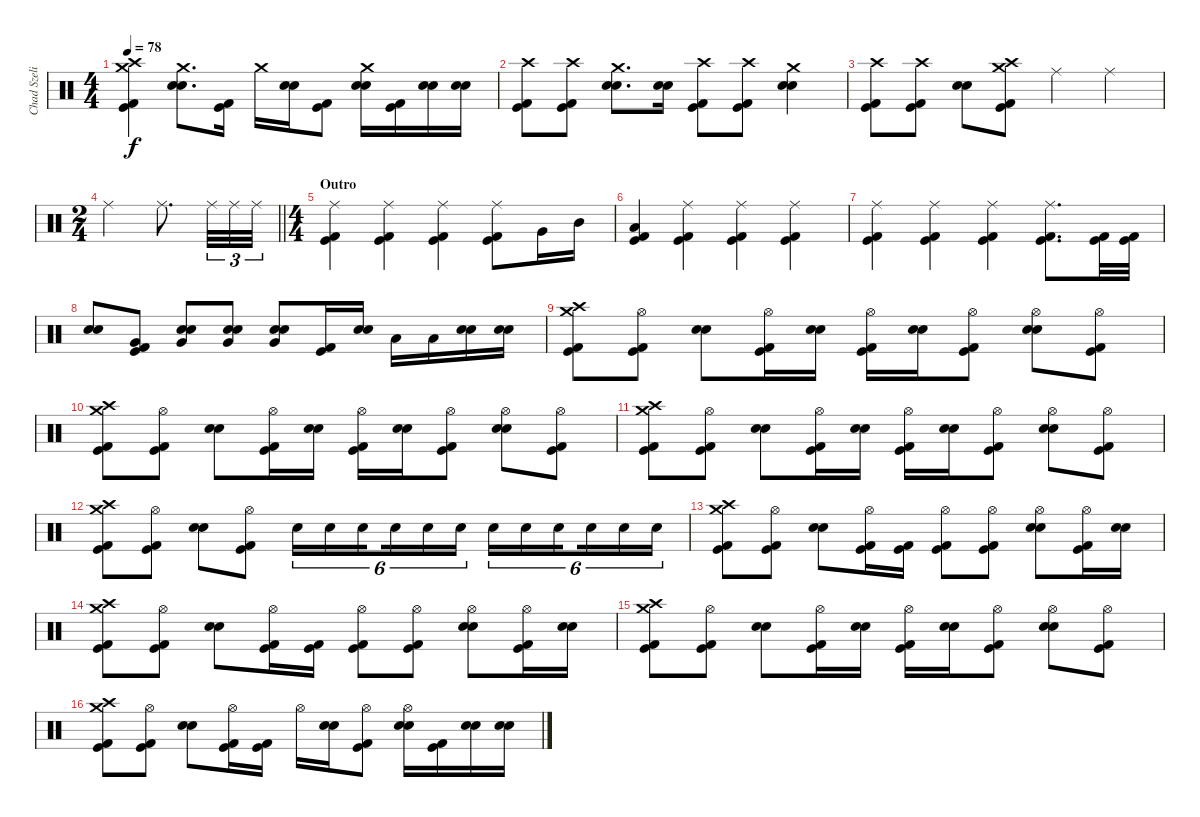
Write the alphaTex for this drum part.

\track ("Chad Szeliga" "Chad Szeli") {instrument percussion}
\staff {score}
\articulation defaults
\ts (4 4)
\tempo 78
\clef neutral
\ks c
("Crash high (hit)" "Kick (hit) 2" "Kick (hit)" "Crash medium (hit)").4{dy f} ("Crash medium (hit)" "Snare (hit) 2" "Snare (hit) 2").8{d} ("Kick (hit) 2" "Kick (hit)").16 "Crash medium (hit)".16 ("Snare (hit) 2" "Snare (hit) 2").16 ("Kick (hit) 2" "Kick (hit)").8 ("Crash medium (hit)" "Snare (hit) 2" "Snare (hit) 2").16 ("Kick (hit) 2" "Kick (hit)").16 ("Snare (hit) 2" "Snare (hit) 2").16 ("Snare (hit) 2" "Snare (hit) 2").16 |
("Crash high (hit)" "Kick (hit) 2" "Kick (hit)").8 ("Crash high (hit)" "Kick (hit) 2" "Kick (hit)").8 ("Crash medium (hit)" "Snare (hit) 2" "Snare (hit) 2").8{d} ("Snare (hit) 2" "Snare (hit) 2").16 ("Crash high (hit)" "Kick (hit) 2" "Kick (hit)").8 ("Crash high (hit)" "Kick (hit) 2" "Kick (hit)").8 ("Crash medium (hit)" "Snare (hit) 2" "Snare (hit) 2").4 |
("Crash high (hit)" "Kick (hit) 2" "Kick (hit)").8 ("Crash high (hit)" "Kick (hit) 2" "Kick (hit)").8 ("Snare (hit) 2" "Snare (hit) 2").8 ("Crash high (hit)" "Kick (hit) 2" "Kick (hit)" "Crash medium (hit)").8 "Ride (middle)".4 "Ride (middle)".4 |
\ts (2 4)
\barLineRight lightlight "Ride (middle)".4 "Ride (middle)".8{d} "Ride (middle)".32{tu (3 2)} "Ride (middle)".32{tu (3 2)} "Ride (middle)".32{tu (3 2)}
|
\ts (4 4)
\section ("" "Outro")
("Ride (middle)" "Kick (hit) 2" "Kick (hit)").4 ("Ride (middle)" "Kick (hit) 2" "Kick (hit)").4 ("Ride (middle)" "Kick (hit) 2" "Kick (hit)").4 ("Ride (middle)" "Kick (hit) 2" "Kick (hit)").8 "Very Low Tom (hit)".16 "Mid Tom (hit)".16 |
("Kick (hit) 2" "Kick (hit)" "Low Tom (hit)").4 ("Ride (middle)" "Kick (hit) 2" "Kick (hit)").4 ("Ride (middle)" "Kick (hit) 2" "Kick (hit)").4 ("Ride (middle)" "Kick (hit) 2" "Kick (hit)").4 |
("Ride (middle)" "Kick (hit) 2" "Kick (hit)").4 ("Ride (middle)" "Kick (hit) 2" "Kick (hit)").4 ("Ride (middle)" "Kick (hit) 2" "Kick (hit)").4 ("Ride (middle)" "Kick (hit) 2" "Kick (hit)").8{d} ("Kick (hit) 2" "Kick (hit)").32 ("Kick (hit) 2" "Kick (hit)").32 |
("Snare (hit) 2" "Snare (hit) 2").8 ("Kick (hit) 2" "Kick (hit)" "Very Low Tom (hit)").8 ("Snare (hit) 2" "Snare (hit) 2" "Very Low Tom (hit)").8 ("Snare (hit) 2" "Snare (hit) 2" "Very Low Tom (hit)").8 ("Snare (hit) 2" "Snare (hit) 2" "Very Low Tom (hit)").8 ("Kick (hit) 2" "Kick (hit)").16 ("Snare (hit) 2" "Snare (hit) 2").16 "Low Tom (hit)".16 "Low Tom (hit)".16 ("Snare (hit) 2" "Snare (hit) 2").16 ("Snare (hit) 2" "Snare (hit) 2").16 |
("Crash high (hit)" "Kick (hit) 2" "Kick (hit)" "Crash medium (hit)").8 ("Kick (hit) 2" "Kick (hit)" "Hi-Hat (open)").8 ("Snare (hit) 2" "Snare (hit) 2").8 ("Kick (hit) 2" "Kick (hit)" "Hi-Hat (open)").16 ("Snare (hit) 2" "Snare (hit) 2").16 ("Kick (hit) 2" "Kick (hit)" "Hi-Hat (open)").16 ("Snare (hit) 2" "Snare (hit) 2").16 ("Kick (hit) 2" "Kick (hit)" "Hi-Hat (open)").8 ("Snare (hit) 2" "Snare (hit) 2" "Hi-Hat (open)").8 ("Kick (hit) 2" "Kick (hit)" "Hi-Hat (open)").8 |
("Crash high (hit)" "Kick (hit) 2" "Kick (hit)" "Crash medium (hit)").8 ("Kick (hit) 2" "Kick (hit)" "Hi-Hat (open)").8 ("Snare (hit) 2" "Snare (hit) 2").8 ("Kick (hit) 2" "Kick (hit)" "Hi-Hat (open)").16 ("Snare (hit) 2" "Snare (hit) 2").16 ("Kick (hit) 2" "Kick (hit)" "Hi-Hat (open)").16 ("Snare (hit) 2" "Snare (hit) 2").16 ("Kick (hit) 2" "Kick (hit)" "Hi-Hat (open)").8 ("Snare (hit) 2" "Snare (hit) 2" "Hi-Hat (open)").8 ("Kick (hit) 2" "Kick (hit)" "Hi-Hat (open)").8 |
("Crash high (hit)" "Kick (hit) 2" "Kick (hit)" "Crash medium (hit)").8 ("Kick (hit) 2" "Kick (hit)" "Hi-Hat (open)").8 ("Snare (hit) 2" "Snare (hit) 2").8 ("Kick (hit) 2" "Kick (hit)" "Hi-Hat (open)").16 ("Snare (hit) 2" "Snare (hit) 2").16 ("Kick (hit) 2" "Kick (hit)" "Hi-Hat (open)").16 ("Snare (hit) 2" "Snare (hit) 2").16 ("Kick (hit) 2" "Kick (hit)" "Hi-Hat (open)").8 ("Snare (hit) 2" "Snare (hit) 2" "Hi-Hat (open)").8 ("Kick (hit) 2" "Kick (hit)" "Hi-Hat (open)").8 |
("Crash high (hit)" "Kick (hit) 2" "Kick (hit)" "Crash medium (hit)").8 ("Kick (hit) 2" "Kick (hit)" "Hi-Hat (open)").8 ("Snare (hit) 2" "Snare (hit) 2").8 ("Kick (hit) 2" "Kick (hit)" "Hi-Hat (open)").8 "Snare (hit) 2".16{tu (6 4)} "Snare (hit) 2".16{tu (6 4)} "Snare (hit) 2".16{tu (6 4) beam splitsecondary} "Snare (hit) 2".16{tu (6 4)} "Snare (hit) 2".16{tu (6 4)} "Snare (hit) 2".16{tu (6 4)} "Snare (hit) 2".16{tu (6 4)} "Snare (hit) 2".16{tu (6 4)} "Snare (hit) 2".16{tu (6 4) beam splitsecondary} "Snare (hit) 2".16{tu (6 4)} "Snare (hit) 2".16{tu (6 4)} "Snare (hit) 2".16{tu (6 4)} |
("Crash high (hit)" "Kick (hit) 2" "Kick (hit)" "Crash medium (hit)").8 ("Kick (hit) 2" "Kick (hit)" "Hi-Hat (open)").8 ("Snare (hit) 2" "Snare (hit) 2").8 ("Kick (hit) 2" "Kick (hit)" "Hi-Hat (open)").16 ("Kick (hit) 2" "Kick (hit)").16 ("Kick (hit) 2" "Kick (hit)" "Hi-Hat (open)").8 ("Kick (hit) 2" "Kick (hit)" "Hi-Hat (open)").8 ("Snare (hit) 2" "Snare (hit) 2" "Hi-Hat (open)").8 ("Kick (hit) 2" "Kick (hit)" "Hi-Hat (open)").16 ("Snare (hit) 2" "Snare (hit) 2").16 |
("Crash high (hit)" "Kick (hit) 2" "Kick (hit)" "Crash medium (hit)").8 ("Kick (hit) 2" "Kick (hit)" "Hi-Hat (open)").8 ("Snare (hit) 2" "Snare (hit) 2").8 ("Kick (hit) 2" "Kick (hit)" "Hi-Hat (open)").16 ("Kick (hit) 2" "Kick (hit)").16 ("Kick (hit) 2" "Kick (hit)" "Hi-Hat (open)").8 ("Kick (hit) 2" "Kick (hit)" "Hi-Hat (open)").8 ("Snare (hit) 2" "Snare (hit) 2" "Hi-Hat (open)").8 ("Kick (hit) 2" "Kick (hit)" "Hi-Hat (open)").16 ("Snare (hit) 2" "Snare (hit) 2").16 |
("Crash high (hit)" "Kick (hit) 2" "Kick (hit)" "Crash medium (hit)").8 ("Kick (hit) 2" "Kick (hit)" "Hi-Hat (open)").8 ("Snare (hit) 2" "Snare (hit) 2").8 ("Kick (hit) 2" "Kick (hit)" "Hi-Hat (open)").16 ("Snare (hit) 2" "Snare (hit) 2").16 ("Kick (hit) 2" "Kick (hit)" "Hi-Hat (open)").16 ("Snare (hit) 2" "Snare (hit) 2").16 ("Kick (hit) 2" "Kick (hit)" "Hi-Hat (open)").8 ("Snare (hit) 2" "Snare (hit) 2" "Hi-Hat (open)").8 ("Kick (hit) 2" "Kick (hit)" "Hi-Hat (open)").8 |
("Crash high (hit)" "Kick (hit) 2" "Kick (hit)" "Crash medium (hit)").8 ("Kick (hit) 2" "Kick (hit)" "Hi-Hat (open)").8 ("Snare (hit) 2" "Snare (hit) 2").8 ("Kick (hit) 2" "Kick (hit)" "Hi-Hat (open)").16 ("Kick (hit) 2" "Kick (hit)").16 "Hi-Hat (open)".16 ("Snare (hit) 2" "Snare (hit) 2").16 ("Kick (hit) 2" "Kick (hit)" "Hi-Hat (open)").8 ("Snare (hit) 2" "Snare (hit) 2" "Hi-Hat (open)").16 ("Kick (hit) 2" "Kick (hit)").16 ("Snare (hit) 2" "Snare (hit) 2").16 ("Snare (hit) 2" "Snare (hit) 2").16
